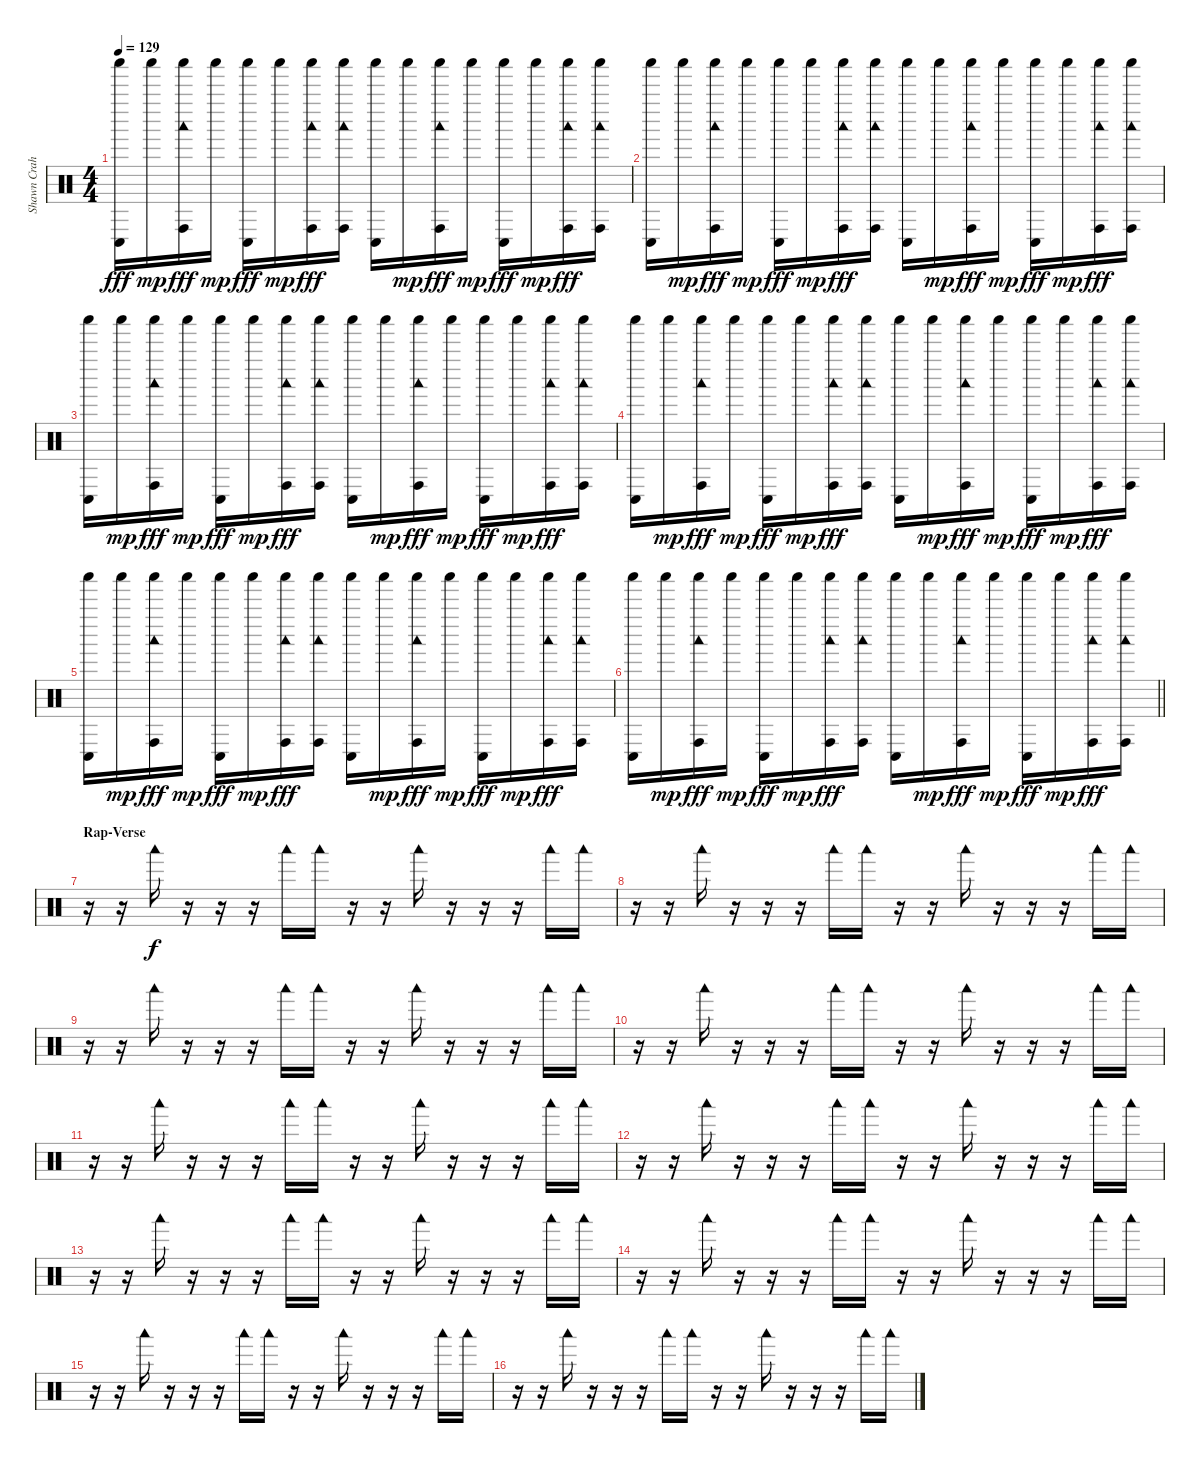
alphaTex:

\track ("Shawn Crahan" "Shawn Crah") {instrument percussion}
\staff {score}
\articulation defaults
\ts (4 4)
\tempo 129
\clef neutral
\ks c
("Shaker (hit)" "Conga low (hit)").16{dy fff} "Shaker (hit)".16{dy mp} ("Shaker (hit)" "Woodblock low (hit)" "Conga high (hit)").16{dy fff} "Shaker (hit)".16{dy mp} ("Shaker (hit)" "Conga low (hit)").16{dy fff} "Shaker (hit)".16{dy mp} ("Shaker (hit)" "Woodblock low (hit)" "Conga high (hit)").16{dy fff} ("Shaker (hit)" "Woodblock low (hit)" "Conga high (hit)").16 ("Shaker (hit)" "Conga low (hit)").16 "Shaker (hit)".16{dy mp} ("Shaker (hit)" "Woodblock low (hit)" "Conga high (hit)").16{dy fff} "Shaker (hit)".16{dy mp} ("Shaker (hit)" "Conga low (hit)").16{dy fff} "Shaker (hit)".16{dy mp} ("Shaker (hit)" "Woodblock low (hit)" "Conga high (hit)").16{dy fff} ("Shaker (hit)" "Woodblock low (hit)" "Conga high (hit)").16 |
("Shaker (hit)" "Conga low (hit)").16 "Shaker (hit)".16{dy mp} ("Shaker (hit)" "Woodblock low (hit)" "Conga high (hit)").16{dy fff} "Shaker (hit)".16{dy mp} ("Shaker (hit)" "Conga low (hit)").16{dy fff} "Shaker (hit)".16{dy mp} ("Shaker (hit)" "Woodblock low (hit)" "Conga high (hit)").16{dy fff} ("Shaker (hit)" "Woodblock low (hit)" "Conga high (hit)").16 ("Shaker (hit)" "Conga low (hit)").16 "Shaker (hit)".16{dy mp} ("Shaker (hit)" "Woodblock low (hit)" "Conga high (hit)").16{dy fff} "Shaker (hit)".16{dy mp} ("Shaker (hit)" "Conga low (hit)").16{dy fff} "Shaker (hit)".16{dy mp} ("Shaker (hit)" "Woodblock low (hit)" "Conga high (hit)").16{dy fff} ("Shaker (hit)" "Woodblock low (hit)" "Conga high (hit)").16 |
("Shaker (hit)" "Conga low (hit)").16 "Shaker (hit)".16{dy mp} ("Shaker (hit)" "Woodblock low (hit)" "Conga high (hit)").16{dy fff} "Shaker (hit)".16{dy mp} ("Shaker (hit)" "Conga low (hit)").16{dy fff} "Shaker (hit)".16{dy mp} ("Shaker (hit)" "Woodblock low (hit)" "Conga high (hit)").16{dy fff} ("Shaker (hit)" "Woodblock low (hit)" "Conga high (hit)").16 ("Shaker (hit)" "Conga low (hit)").16 "Shaker (hit)".16{dy mp} ("Shaker (hit)" "Woodblock low (hit)" "Conga high (hit)").16{dy fff} "Shaker (hit)".16{dy mp} ("Shaker (hit)" "Conga low (hit)").16{dy fff} "Shaker (hit)".16{dy mp} ("Shaker (hit)" "Woodblock low (hit)" "Conga high (hit)").16{dy fff} ("Shaker (hit)" "Woodblock low (hit)" "Conga high (hit)").16 |
("Shaker (hit)" "Conga low (hit)").16 "Shaker (hit)".16{dy mp} ("Shaker (hit)" "Woodblock low (hit)" "Conga high (hit)").16{dy fff} "Shaker (hit)".16{dy mp} ("Shaker (hit)" "Conga low (hit)").16{dy fff} "Shaker (hit)".16{dy mp} ("Shaker (hit)" "Woodblock low (hit)" "Conga high (hit)").16{dy fff} ("Shaker (hit)" "Woodblock low (hit)" "Conga high (hit)").16 ("Shaker (hit)" "Conga low (hit)").16 "Shaker (hit)".16{dy mp} ("Shaker (hit)" "Woodblock low (hit)" "Conga high (hit)").16{dy fff} "Shaker (hit)".16{dy mp} ("Shaker (hit)" "Conga low (hit)").16{dy fff} "Shaker (hit)".16{dy mp} ("Shaker (hit)" "Woodblock low (hit)" "Conga high (hit)").16{dy fff} ("Shaker (hit)" "Woodblock low (hit)" "Conga high (hit)").16 |
("Shaker (hit)" "Conga low (hit)").16 "Shaker (hit)".16{dy mp} ("Shaker (hit)" "Woodblock low (hit)" "Conga high (hit)").16{dy fff} "Shaker (hit)".16{dy mp} ("Shaker (hit)" "Conga low (hit)").16{dy fff} "Shaker (hit)".16{dy mp} ("Shaker (hit)" "Woodblock low (hit)" "Conga high (hit)").16{dy fff} ("Shaker (hit)" "Woodblock low (hit)" "Conga high (hit)").16 ("Shaker (hit)" "Conga low (hit)").16 "Shaker (hit)".16{dy mp} ("Shaker (hit)" "Woodblock low (hit)" "Conga high (hit)").16{dy fff} "Shaker (hit)".16{dy mp} ("Shaker (hit)" "Conga low (hit)").16{dy fff} "Shaker (hit)".16{dy mp} ("Shaker (hit)" "Woodblock low (hit)" "Conga high (hit)").16{dy fff} ("Shaker (hit)" "Woodblock low (hit)" "Conga high (hit)").16 |
\barLineRight lightlight
("Shaker (hit)" "Conga low (hit)").16 "Shaker (hit)".16{dy mp} ("Shaker (hit)" "Woodblock low (hit)" "Conga high (hit)").16{dy fff} "Shaker (hit)".16{dy mp} ("Shaker (hit)" "Conga low (hit)").16{dy fff} "Shaker (hit)".16{dy mp} ("Shaker (hit)" "Woodblock low (hit)" "Conga high (hit)").16{dy fff} ("Shaker (hit)" "Woodblock low (hit)" "Conga high (hit)").16 ("Shaker (hit)" "Conga low (hit)").16 "Shaker (hit)".16{dy mp} ("Shaker (hit)" "Woodblock low (hit)" "Conga high (hit)").16{dy fff} "Shaker (hit)".16{dy mp} ("Shaker (hit)" "Conga low (hit)").16{dy fff} "Shaker (hit)".16{dy mp} ("Shaker (hit)" "Woodblock low (hit)" "Conga high (hit)").16{dy fff} ("Shaker (hit)" "Woodblock low (hit)" "Conga high (hit)").16 |
\section ("" "Rap-Verse")
r.16 r.16 "Woodblock low (hit)".16{dy f} r.16 r.16 r.16 "Woodblock low (hit)".16 "Woodblock low (hit)".16 r.16 r.16 "Woodblock low (hit)".16 r.16 r.16 r.16 "Woodblock low (hit)".16 "Woodblock low (hit)".16 |
r.16 r.16 "Woodblock low (hit)".16 r.16 r.16 r.16 "Woodblock low (hit)".16 "Woodblock low (hit)".16 r.16 r.16 "Woodblock low (hit)".16 r.16 r.16 r.16 "Woodblock low (hit)".16 "Woodblock low (hit)".16 |
r.16 r.16 "Woodblock low (hit)".16 r.16 r.16 r.16 "Woodblock low (hit)".16 "Woodblock low (hit)".16 r.16 r.16 "Woodblock low (hit)".16 r.16 r.16 r.16 "Woodblock low (hit)".16 "Woodblock low (hit)".16 |
r.16 r.16 "Woodblock low (hit)".16 r.16 r.16 r.16 "Woodblock low (hit)".16 "Woodblock low (hit)".16 r.16 r.16 "Woodblock low (hit)".16 r.16 r.16 r.16 "Woodblock low (hit)".16 "Woodblock low (hit)".16 |
r.16 r.16 "Woodblock low (hit)".16 r.16 r.16 r.16 "Woodblock low (hit)".16 "Woodblock low (hit)".16 r.16 r.16 "Woodblock low (hit)".16 r.16 r.16 r.16 "Woodblock low (hit)".16 "Woodblock low (hit)".16 |
r.16 r.16 "Woodblock low (hit)".16 r.16 r.16 r.16 "Woodblock low (hit)".16 "Woodblock low (hit)".16 r.16 r.16 "Woodblock low (hit)".16 r.16 r.16 r.16 "Woodblock low (hit)".16 "Woodblock low (hit)".16 |
r.16 r.16 "Woodblock low (hit)".16 r.16 r.16 r.16 "Woodblock low (hit)".16 "Woodblock low (hit)".16 r.16 r.16 "Woodblock low (hit)".16 r.16 r.16 r.16 "Woodblock low (hit)".16 "Woodblock low (hit)".16 |
r.16 r.16 "Woodblock low (hit)".16 r.16 r.16 r.16 "Woodblock low (hit)".16 "Woodblock low (hit)".16 r.16 r.16 "Woodblock low (hit)".16 r.16 r.16 r.16 "Woodblock low (hit)".16 "Woodblock low (hit)".16 |
r.16 r.16 "Woodblock low (hit)".16 r.16 r.16 r.16 "Woodblock low (hit)".16 "Woodblock low (hit)".16 r.16 r.16 "Woodblock low (hit)".16 r.16 r.16 r.16 "Woodblock low (hit)".16 "Woodblock low (hit)".16 |
r.16 r.16 "Woodblock low (hit)".16 r.16 r.16 r.16 "Woodblock low (hit)".16 "Woodblock low (hit)".16 r.16 r.16 "Woodblock low (hit)".16 r.16 r.16 r.16 "Woodblock low (hit)".16 "Woodblock low (hit)".16
